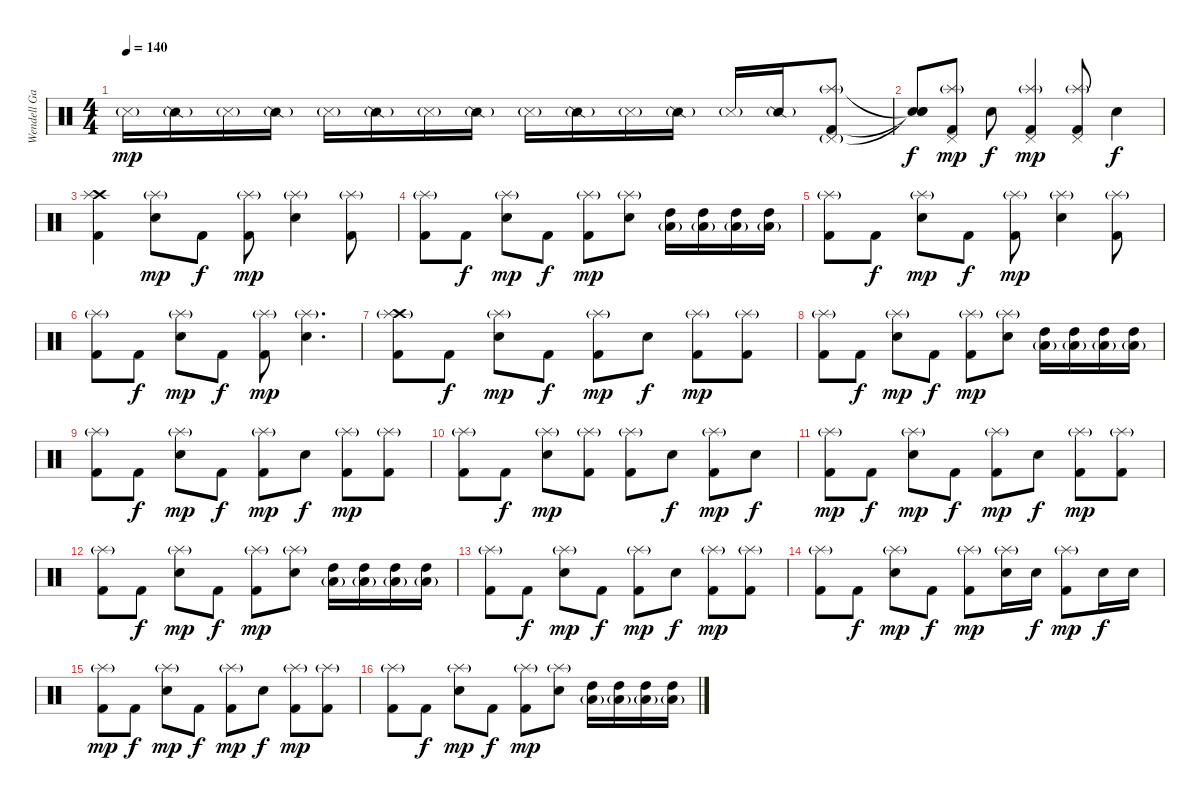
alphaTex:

\track ("Wendell Garcia(Drums)" "Wendell Ga") {instrument percussion}
\staff {score}
\articulation defaults
\ts (4 4)
\tempo 140
\clef neutral
\ks c "Snare (side stick) 3"{g}.16{dy mp} "Snare (side stick) 2"{g}.16 "Snare (side stick) 3"{g}.16 "Snare (side stick) 2"{g}.16 "Snare (side stick) 3"{g}.16 "Snare (side stick) 2"{g}.16 "Snare (side stick) 3"{g}.16 "Snare (side stick) 2"{g}.16 "Snare (side stick) 3"{g}.16 "Snare (side stick) 2"{g}.16 "Snare (side stick) 3"{g}.16 "Snare (side stick) 2"{g}.16 "Snare (side stick) 3"{g}.16 "Snare (side stick) 2"{g}.16
("Pedal Hi-Hat (hit)"{g} "Splash (hit)"{g} "Kick (hit) 2").8 |
("Snare (hit)"{t} "Snare (hit)"{t} "Snare (hit)"{t}).8{dy f} ("Pedal Hi-Hat (hit)" "Splash (hit)"{g} "Kick (hit) 2").8{dy mp} "Electric Snare (hit)".8{dy f} ("Pedal Hi-Hat (hit)" "Splash (hit)"{g} "Kick (hit) 2").4{dy mp} ("Pedal Hi-Hat (hit)" "Splash (hit)"{g} "Kick (hit) 2").8 "Electric Snare (hit)".4{dy f} |
("Crash high (hit)" "Splash (hit)" "Kick (hit) 2").4 ("Splash (hit)"{g} "Electric Snare (hit)").8{dy mp} "Kick (hit) 2".8{dy f} ("Splash (hit)"{g} "Kick (hit) 2").8{dy mp} ("Splash (hit)"{g} "Electric Snare (hit)").4 ("Splash (hit)"{g} "Kick (hit) 2").8 |
("Splash (hit)"{g} "Kick (hit) 2").8 "Kick (hit) 2".8{dy f} ("Splash (hit)"{g} "Electric Snare (hit)").8{dy mp} "Kick (hit) 2".8{dy f} ("Splash (hit)"{g} "Kick (hit) 2").8{dy mp} ("Splash (hit)"{g} "Electric Snare (hit)").8 ("High Tom (hit)" "Low Tom (hit)"{g}).16 ("High Tom (hit)" "Low Tom (hit)"{g}).16 ("High Tom (hit)" "Low Tom (hit)"{g}).16 ("High Tom (hit)" "Low Tom (hit)"{g}).16 |
("Splash (hit)"{g} "Kick (hit) 2").8 "Kick (hit) 2".8{dy f} ("Splash (hit)"{g} "Electric Snare (hit)").8{dy mp} "Kick (hit) 2".8{dy f} ("Splash (hit)"{g} "Kick (hit) 2").8{dy mp} ("Splash (hit)"{g} "Electric Snare (hit)").4 ("Splash (hit)"{g} "Kick (hit) 2").8 |
("Splash (hit)"{g} "Kick (hit) 2").8 "Kick (hit) 2".8{dy f} ("Splash (hit)"{g} "Electric Snare (hit)").8{dy mp} "Kick (hit) 2".8{dy f} ("Splash (hit)"{g} "Kick (hit) 2").8{dy mp} ("Splash (hit)"{g} "Electric Snare (hit)").4{d} |
("Crash high (hit)"{g} "Splash (hit)"{g} "Kick (hit) 2").8 "Kick (hit) 2".8{dy f} ("Splash (hit)"{g} "Electric Snare (hit)").8{dy mp} "Kick (hit) 2".8{dy f} ("Splash (hit)"{g} "Kick (hit) 2").8{dy mp} "Electric Snare (hit)".8{dy f} ("Splash (hit)"{g} "Kick (hit) 2").8{dy mp} ("Splash (hit)"{g} "Kick (hit) 2").8 |
("Splash (hit)"{g} "Kick (hit) 2").8 "Kick (hit) 2".8{dy f} ("Splash (hit)"{g} "Electric Snare (hit)").8{dy mp} "Kick (hit) 2".8{dy f} ("Splash (hit)"{g} "Kick (hit) 2").8{dy mp} ("Splash (hit)"{g} "Electric Snare (hit)").8 ("High Tom (hit)" "Low Tom (hit)"{g}).16 ("High Tom (hit)" "Low Tom (hit)"{g}).16 ("High Tom (hit)" "Low Tom (hit)"{g}).16 ("High Tom (hit)" "Low Tom (hit)"{g}).16 |
("Splash (hit)"{g} "Kick (hit) 2").8 "Kick (hit) 2".8{dy f} ("Splash (hit)"{g} "Electric Snare (hit)").8{dy mp} "Kick (hit) 2".8{dy f} ("Splash (hit)"{g} "Kick (hit) 2").8{dy mp} "Electric Snare (hit)".8{dy f} ("Splash (hit)"{g} "Kick (hit) 2").8{dy mp} ("Splash (hit)"{g} "Kick (hit) 2").8 |
("Splash (hit)"{g} "Kick (hit) 2").8 "Kick (hit) 2".8{dy f} ("Splash (hit)"{g} "Electric Snare (hit)").8{dy mp} ("Splash (hit)"{g} "Kick (hit) 2").8 ("Splash (hit)"{g} "Kick (hit) 2").8 "Electric Snare (hit)".8{dy f} ("Splash (hit)"{g} "Kick (hit) 2").8{dy mp} "Electric Snare (hit)".8{dy f} |
("Splash (hit)"{g} "Kick (hit) 2").8{dy mp} "Kick (hit) 2".8{dy f} ("Splash (hit)"{g} "Electric Snare (hit)").8{dy mp} "Kick (hit) 2".8{dy f} ("Splash (hit)"{g} "Kick (hit) 2").8{dy mp} "Electric Snare (hit)".8{dy f} ("Splash (hit)"{g} "Kick (hit) 2").8{dy mp} ("Splash (hit)"{g} "Kick (hit) 2").8 |
("Splash (hit)"{g} "Kick (hit) 2").8 "Kick (hit) 2".8{dy f} ("Splash (hit)"{g} "Electric Snare (hit)").8{dy mp} "Kick (hit) 2".8{dy f} ("Splash (hit)"{g} "Kick (hit) 2").8{dy mp} ("Splash (hit)"{g} "Electric Snare (hit)").8 ("High Tom (hit)" "Low Tom (hit)"{g}).16 ("High Tom (hit)" "Low Tom (hit)"{g}).16 ("High Tom (hit)" "Low Tom (hit)"{g}).16 ("High Tom (hit)" "Low Tom (hit)"{g}).16 |
("Splash (hit)"{g} "Kick (hit) 2").8 "Kick (hit) 2".8{dy f} ("Splash (hit)"{g} "Electric Snare (hit)").8{dy mp} "Kick (hit) 2".8{dy f} ("Splash (hit)"{g} "Kick (hit) 2").8{dy mp} "Electric Snare (hit)".8{dy f} ("Splash (hit)"{g} "Kick (hit) 2").8{dy mp} ("Splash (hit)"{g} "Kick (hit) 2").8 |
("Splash (hit)"{g} "Kick (hit) 2").8 "Kick (hit) 2".8{dy f} ("Splash (hit)"{g} "Electric Snare (hit)").8{dy mp} "Kick (hit) 2".8{dy f} ("Splash (hit)"{g} "Kick (hit) 2").8{dy mp} ("Splash (hit)"{g} "Electric Snare (hit)").16 "Electric Snare (hit)".16{dy f} ("Splash (hit)"{g} "Kick (hit) 2").8{dy mp} "Electric Snare (hit)".16{dy f} "Electric Snare (hit)".16 |
("Splash (hit)"{g} "Kick (hit) 2").8{dy mp} "Kick (hit) 2".8{dy f} ("Splash (hit)"{g} "Electric Snare (hit)").8{dy mp} "Kick (hit) 2".8{dy f} ("Splash (hit)"{g} "Kick (hit) 2").8{dy mp} "Electric Snare (hit)".8{dy f} ("Splash (hit)"{g} "Kick (hit) 2").8{dy mp} ("Splash (hit)"{g} "Kick (hit) 2").8 |
("Splash (hit)"{g} "Kick (hit) 2").8 "Kick (hit) 2".8{dy f} ("Splash (hit)"{g} "Electric Snare (hit)").8{dy mp} "Kick (hit) 2".8{dy f} ("Splash (hit)"{g} "Kick (hit) 2").8{dy mp} ("Splash (hit)"{g} "Electric Snare (hit)").8 ("High Tom (hit)" "Low Tom (hit)"{g}).16 ("High Tom (hit)" "Low Tom (hit)"{g}).16 ("High Tom (hit)" "Low Tom (hit)"{g}).16 ("High Tom (hit)" "Low Tom (hit)"{g}).16
